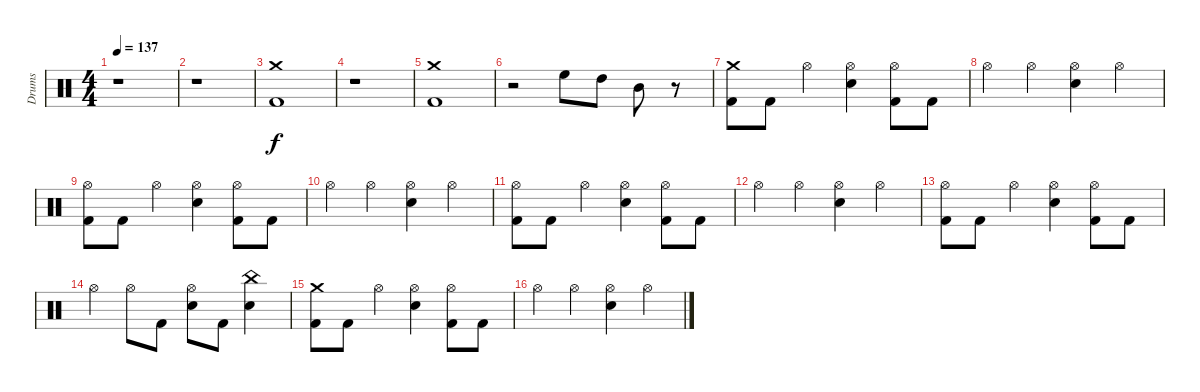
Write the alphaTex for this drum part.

\track ("Drums" "Drums") {instrument percussion}
\staff {score}
\articulation defaults
\ts (4 4)
\tempo 137
\clef neutral
\ks c
r.1{dy f} |
r.1 |
("Crash medium (hit)" "Kick (hit) 2").1 |
r.1 |
("Crash medium (hit)" "Kick (hit) 2").1 |
r.2 "High Floor Tom (hit)".8 "High Tom (hit)".8 "Mid Tom (hit)".8 r.8 |
("Crash medium (hit)" "Kick (hit) 2").8 "Kick (hit) 2".8 "Hi-Hat (open)".4 ("Hi-Hat (open)" "Electric Snare (hit)").4 ("Hi-Hat (open)" "Kick (hit) 2").8 "Kick (hit) 2".8 |
"Hi-Hat (open)".4 "Hi-Hat (open)".4 ("Hi-Hat (open)" "Electric Snare (hit)").4 "Hi-Hat (open)".4 |
("Hi-Hat (open)" "Kick (hit) 2").8 "Kick (hit) 2".8 "Hi-Hat (open)".4 ("Hi-Hat (open)" "Electric Snare (hit)").4 ("Hi-Hat (open)" "Kick (hit) 2").8 "Kick (hit) 2".8 |
"Hi-Hat (open)".4 "Hi-Hat (open)".4 ("Hi-Hat (open)" "Electric Snare (hit)").4 "Hi-Hat (open)".4 |
("Hi-Hat (open)" "Kick (hit) 2").8 "Kick (hit) 2".8 "Hi-Hat (open)".4 ("Hi-Hat (open)" "Electric Snare (hit)").4 ("Hi-Hat (open)" "Kick (hit) 2").8 "Kick (hit) 2".8 |
"Hi-Hat (open)".4 "Hi-Hat (open)".4 ("Hi-Hat (open)" "Electric Snare (hit)").4 "Hi-Hat (open)".4 |
("Hi-Hat (open)" "Kick (hit) 2").8 "Kick (hit) 2".8 "Hi-Hat (open)".4 ("Hi-Hat (open)" "Electric Snare (hit)").4 ("Hi-Hat (open)" "Kick (hit) 2").8 "Kick (hit) 2".8 |
"Hi-Hat (open)".4 "Hi-Hat (open)".8 "Kick (hit) 2".8 ("Hi-Hat (open)" "Electric Snare (hit)").8 "Kick (hit) 2".8 ("China (hit)" "Electric Snare (hit)").4 |
("Crash medium (hit)" "Kick (hit) 2").8 "Kick (hit) 2".8 "Hi-Hat (open)".4 ("Hi-Hat (open)" "Electric Snare (hit)").4 ("Hi-Hat (open)" "Kick (hit) 2").8 "Kick (hit) 2".8 |
"Hi-Hat (open)".4 "Hi-Hat (open)".4 ("Hi-Hat (open)" "Electric Snare (hit)").4 "Hi-Hat (open)".4
